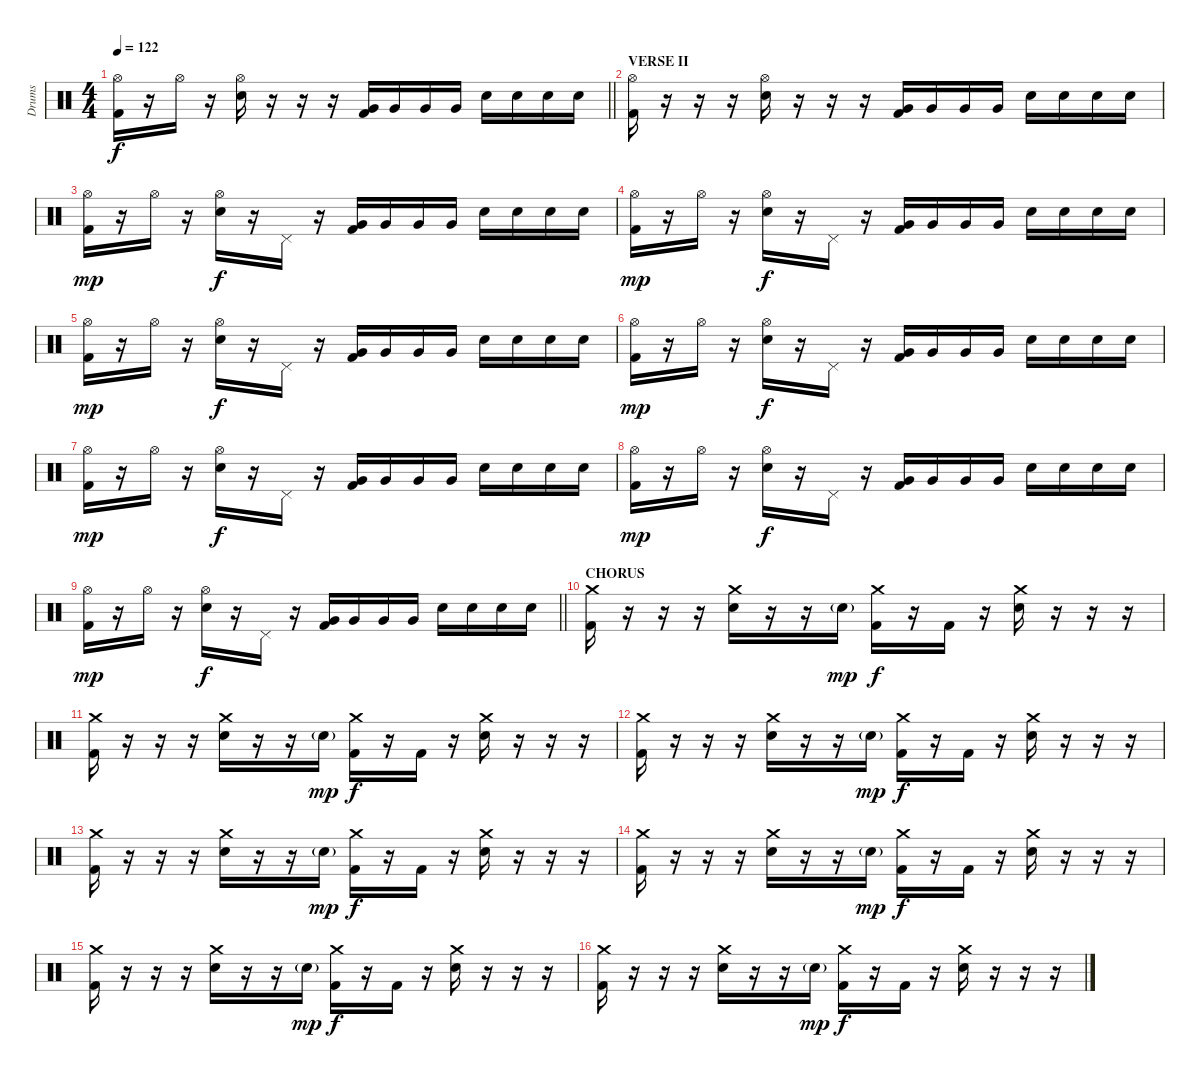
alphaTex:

\track ("Drums" "Drums") {instrument percussion}
\staff {score}
\articulation defaults
\ts (4 4)
\tempo 122
\clef neutral
\barLineRight lightlight
\ks c
("Hi-Hat (open)" "Kick (hit) 2").16{dy f} r.16 "Hi-Hat (open)".16 r.16 ("Hi-Hat (open)" "Electric Snare (hit)").16 r.16 r.16 r.16 ("Very Low Tom (hit)" "Kick (hit) 2").16 "Very Low Tom (hit)".16 "Very Low Tom (hit)".16 "Very Low Tom (hit)".16 "Electric Snare (hit)".16 "Electric Snare (hit)".16 "Electric Snare (hit)".16 "Electric Snare (hit)".16 |
\section ("" "VERSE II")
("Hi-Hat (open)" "Kick (hit) 2").16 r.16 r.16 r.16 ("Hi-Hat (open)" "Electric Snare (hit)").16 r.16 r.16 r.16 ("Very Low Tom (hit)" "Kick (hit) 2").16 "Very Low Tom (hit)".16 "Very Low Tom (hit)".16 "Very Low Tom (hit)".16 "Electric Snare (hit)".16 "Electric Snare (hit)".16 "Electric Snare (hit)".16 "Electric Snare (hit)".16 |
("Hi-Hat (open)" "Kick (hit) 2").16{dy mp} r.16 "Hi-Hat (open)".16 r.16 ("Hi-Hat (open)" "Electric Snare (hit)").16{dy f} r.16 "Pedal Hi-Hat (hit)".16 r.16 ("Very Low Tom (hit)" "Kick (hit) 2").16 "Very Low Tom (hit)".16 "Very Low Tom (hit)".16 "Very Low Tom (hit)".16 "Electric Snare (hit)".16 "Electric Snare (hit)".16 "Electric Snare (hit)".16 "Electric Snare (hit)".16 |
("Hi-Hat (open)" "Kick (hit) 2").16{dy mp} r.16 "Hi-Hat (open)".16 r.16 ("Hi-Hat (open)" "Electric Snare (hit)").16{dy f} r.16 "Pedal Hi-Hat (hit)".16 r.16 ("Very Low Tom (hit)" "Kick (hit) 2").16 "Very Low Tom (hit)".16 "Very Low Tom (hit)".16 "Very Low Tom (hit)".16 "Electric Snare (hit)".16 "Electric Snare (hit)".16 "Electric Snare (hit)".16 "Electric Snare (hit)".16 |
("Hi-Hat (open)" "Kick (hit) 2").16{dy mp} r.16 "Hi-Hat (open)".16 r.16 ("Hi-Hat (open)" "Electric Snare (hit)").16{dy f} r.16 "Pedal Hi-Hat (hit)".16 r.16 ("Very Low Tom (hit)" "Kick (hit) 2").16 "Very Low Tom (hit)".16 "Very Low Tom (hit)".16 "Very Low Tom (hit)".16 "Electric Snare (hit)".16 "Electric Snare (hit)".16 "Electric Snare (hit)".16 "Electric Snare (hit)".16 |
("Hi-Hat (open)" "Kick (hit) 2").16{dy mp} r.16 "Hi-Hat (open)".16 r.16 ("Hi-Hat (open)" "Electric Snare (hit)").16{dy f} r.16 "Pedal Hi-Hat (hit)".16 r.16 ("Very Low Tom (hit)" "Kick (hit) 2").16 "Very Low Tom (hit)".16 "Very Low Tom (hit)".16 "Very Low Tom (hit)".16 "Electric Snare (hit)".16 "Electric Snare (hit)".16 "Electric Snare (hit)".16 "Electric Snare (hit)".16 |
("Hi-Hat (open)" "Kick (hit) 2").16{dy mp} r.16 "Hi-Hat (open)".16 r.16 ("Hi-Hat (open)" "Electric Snare (hit)").16{dy f} r.16 "Pedal Hi-Hat (hit)".16 r.16 ("Very Low Tom (hit)" "Kick (hit) 2").16 "Very Low Tom (hit)".16 "Very Low Tom (hit)".16 "Very Low Tom (hit)".16 "Electric Snare (hit)".16 "Electric Snare (hit)".16 "Electric Snare (hit)".16 "Electric Snare (hit)".16 |
("Hi-Hat (open)" "Kick (hit) 2").16{dy mp} r.16 "Hi-Hat (open)".16 r.16 ("Hi-Hat (open)" "Electric Snare (hit)").16{dy f} r.16 "Pedal Hi-Hat (hit)".16 r.16 ("Very Low Tom (hit)" "Kick (hit) 2").16 "Very Low Tom (hit)".16 "Very Low Tom (hit)".16 "Very Low Tom (hit)".16 "Electric Snare (hit)".16 "Electric Snare (hit)".16 "Electric Snare (hit)".16 "Electric Snare (hit)".16 |
\barLineRight lightlight
("Hi-Hat (open)" "Kick (hit) 2").16{dy mp} r.16 "Hi-Hat (open)".16 r.16 ("Hi-Hat (open)" "Electric Snare (hit)").16{dy f} r.16 "Pedal Hi-Hat (hit)".16 r.16 ("Very Low Tom (hit)" "Kick (hit) 2").16 "Very Low Tom (hit)".16 "Very Low Tom (hit)".16 "Very Low Tom (hit)".16 "Electric Snare (hit)".16 "Electric Snare (hit)".16 "Electric Snare (hit)".16 "Electric Snare (hit)".16 |
\section ("" "CHORUS")
("Crash medium (hit)" "Kick (hit) 2").16 r.16 r.16 r.16 ("Crash medium (hit)" "Electric Snare (hit)").16 r.16 r.16 "Electric Snare (hit)"{g}.16{dy mp} ("Crash medium (hit)" "Kick (hit) 2").16{dy f} r.16 "Kick (hit) 2".16 r.16 ("Crash medium (hit)" "Electric Snare (hit)").16 r.16 r.16 r.16 |
("Crash medium (hit)" "Kick (hit) 2").16 r.16 r.16 r.16 ("Crash medium (hit)" "Electric Snare (hit)").16 r.16 r.16 "Electric Snare (hit)"{g}.16{dy mp} ("Crash medium (hit)" "Kick (hit) 2").16{dy f} r.16 "Kick (hit) 2".16 r.16 ("Crash medium (hit)" "Electric Snare (hit)").16 r.16 r.16 r.16 |
("Crash medium (hit)" "Kick (hit) 2").16 r.16 r.16 r.16 ("Crash medium (hit)" "Electric Snare (hit)").16 r.16 r.16 "Electric Snare (hit)"{g}.16{dy mp} ("Crash medium (hit)" "Kick (hit) 2").16{dy f} r.16 "Kick (hit) 2".16 r.16 ("Crash medium (hit)" "Electric Snare (hit)").16 r.16 r.16 r.16 |
("Crash medium (hit)" "Kick (hit) 2").16 r.16 r.16 r.16 ("Crash medium (hit)" "Electric Snare (hit)").16 r.16 r.16 "Electric Snare (hit)"{g}.16{dy mp} ("Crash medium (hit)" "Kick (hit) 2").16{dy f} r.16 "Kick (hit) 2".16 r.16 ("Crash medium (hit)" "Electric Snare (hit)").16 r.16 r.16 r.16 |
("Crash medium (hit)" "Kick (hit) 2").16 r.16 r.16 r.16 ("Crash medium (hit)" "Electric Snare (hit)").16 r.16 r.16 "Electric Snare (hit)"{g}.16{dy mp} ("Crash medium (hit)" "Kick (hit) 2").16{dy f} r.16 "Kick (hit) 2".16 r.16 ("Crash medium (hit)" "Electric Snare (hit)").16 r.16 r.16 r.16 |
("Crash medium (hit)" "Kick (hit) 2").16 r.16 r.16 r.16 ("Crash medium (hit)" "Electric Snare (hit)").16 r.16 r.16 "Electric Snare (hit)"{g}.16{dy mp} ("Crash medium (hit)" "Kick (hit) 2").16{dy f} r.16 "Kick (hit) 2".16 r.16 ("Crash medium (hit)" "Electric Snare (hit)").16 r.16 r.16 r.16 |
("Crash medium (hit)" "Kick (hit) 2").16 r.16 r.16 r.16 ("Crash medium (hit)" "Electric Snare (hit)").16 r.16 r.16 "Electric Snare (hit)"{g}.16{dy mp} ("Crash medium (hit)" "Kick (hit) 2").16{dy f} r.16 "Kick (hit) 2".16 r.16 ("Crash medium (hit)" "Electric Snare (hit)").16 r.16 r.16 r.16
